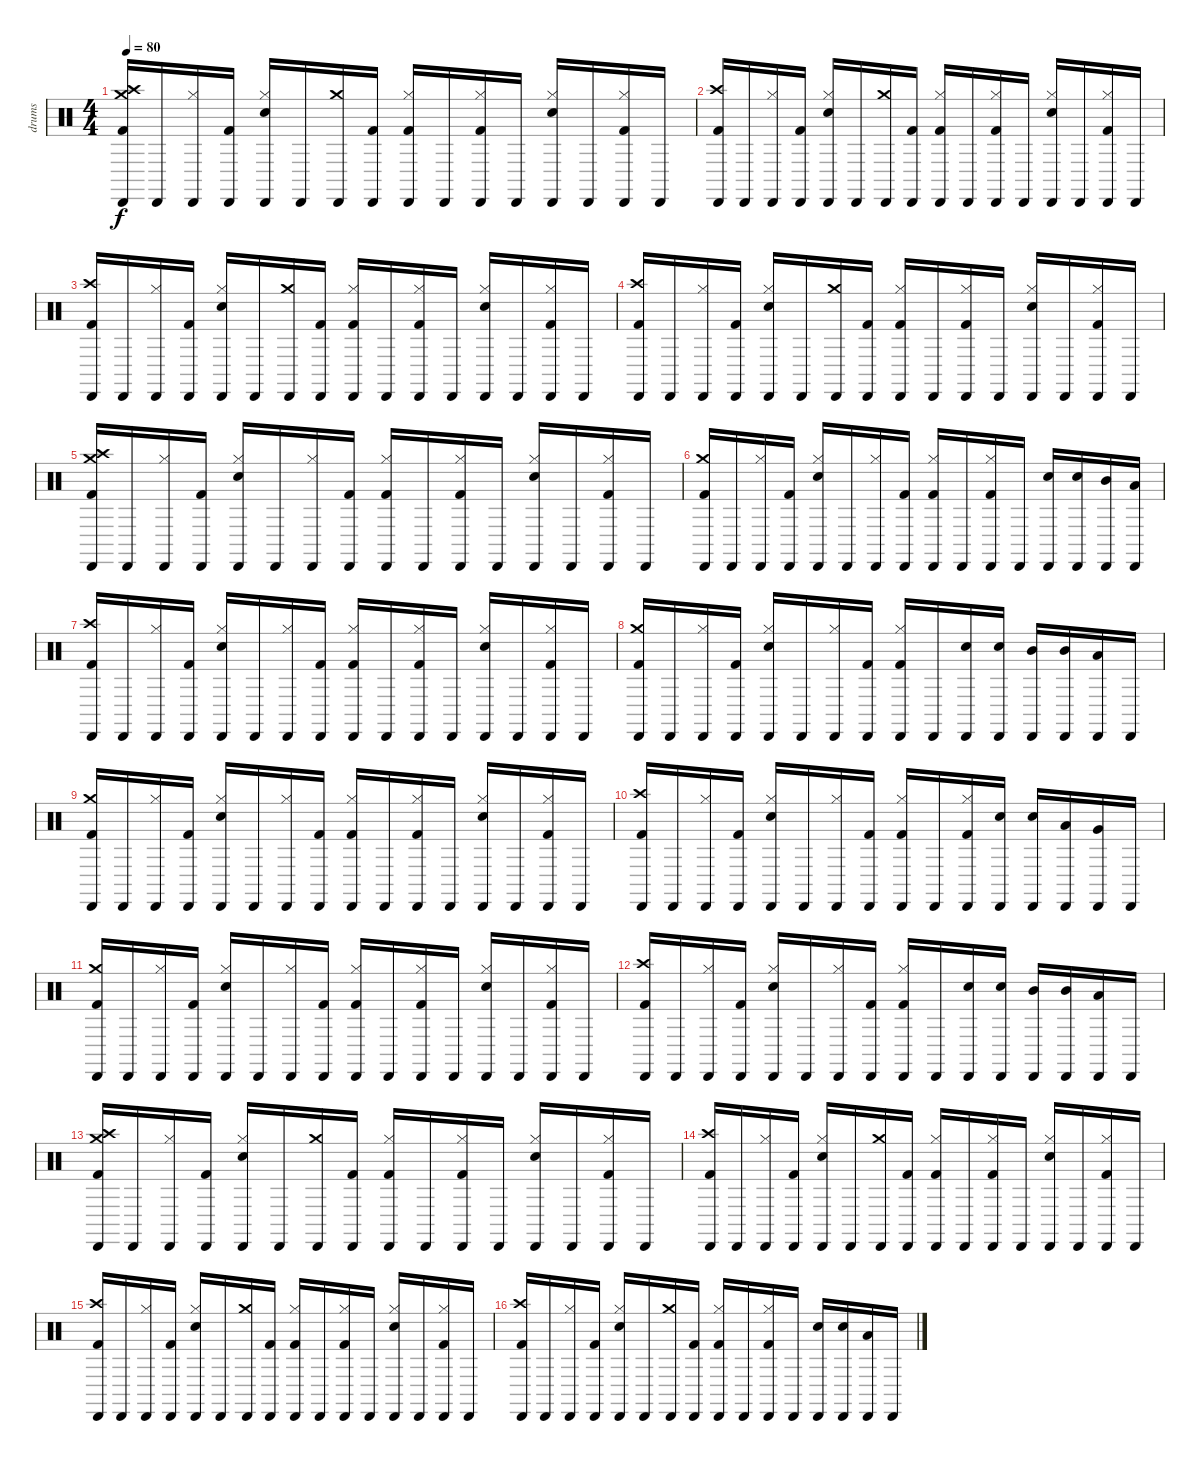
\track ("drums" "drums") {instrument percussion}
\staff {score}
\articulation defaults
\ts (4 4)
\tempo 80
\clef neutral
\ks c
("Cabasa (hit)" "Crash high (hit)" "Kick (hit) 2" "Crash medium (hit)").16{dy f} "Cabasa (hit)".16 ("Cabasa (hit)" "Hi-Hat (closed)").16 ("Cabasa (hit)" "Kick (hit) 2").16 ("Cabasa (hit)" "Hi-Hat (closed)" "Electric Snare (hit)").16 "Cabasa (hit)".16 ("Cabasa (hit)" "Crash medium (hit)").16 ("Cabasa (hit)" "Kick (hit) 2").16 ("Cabasa (hit)" "Hi-Hat (closed)" "Kick (hit) 2").16 "Cabasa (hit)".16 ("Cabasa (hit)" "Hi-Hat (closed)" "Kick (hit) 2").16 "Cabasa (hit)".16 ("Cabasa (hit)" "Hi-Hat (closed)" "Electric Snare (hit)").16 "Cabasa (hit)".16 ("Cabasa (hit)" "Hi-Hat (closed)" "Kick (hit) 2").16 "Cabasa (hit)".16 |
("Cabasa (hit)" "Crash high (hit)" "Kick (hit) 2").16 "Cabasa (hit)".16 ("Cabasa (hit)" "Hi-Hat (closed)").16 ("Cabasa (hit)" "Kick (hit) 2").16 ("Cabasa (hit)" "Hi-Hat (closed)" "Electric Snare (hit)").16 "Cabasa (hit)".16 ("Cabasa (hit)" "Crash medium (hit)").16 ("Cabasa (hit)" "Kick (hit) 2").16 ("Cabasa (hit)" "Hi-Hat (closed)" "Kick (hit) 2").16 "Cabasa (hit)".16 ("Cabasa (hit)" "Hi-Hat (closed)" "Kick (hit) 2").16 "Cabasa (hit)".16 ("Cabasa (hit)" "Hi-Hat (closed)" "Electric Snare (hit)").16 "Cabasa (hit)".16 ("Cabasa (hit)" "Hi-Hat (closed)" "Kick (hit) 2").16 "Cabasa (hit)".16 |
("Cabasa (hit)" "Crash high (hit)" "Kick (hit) 2").16 "Cabasa (hit)".16 ("Cabasa (hit)" "Hi-Hat (closed)").16 ("Cabasa (hit)" "Kick (hit) 2").16 ("Cabasa (hit)" "Hi-Hat (closed)" "Electric Snare (hit)").16 "Cabasa (hit)".16 ("Cabasa (hit)" "Crash medium (hit)").16 ("Cabasa (hit)" "Kick (hit) 2").16 ("Cabasa (hit)" "Hi-Hat (closed)" "Kick (hit) 2").16 "Cabasa (hit)".16 ("Cabasa (hit)" "Hi-Hat (closed)" "Kick (hit) 2").16 "Cabasa (hit)".16 ("Cabasa (hit)" "Hi-Hat (closed)" "Electric Snare (hit)").16 "Cabasa (hit)".16 ("Cabasa (hit)" "Hi-Hat (closed)" "Kick (hit) 2").16 "Cabasa (hit)".16 |
("Cabasa (hit)" "Crash high (hit)" "Kick (hit) 2").16 "Cabasa (hit)".16 ("Cabasa (hit)" "Hi-Hat (closed)").16 ("Cabasa (hit)" "Kick (hit) 2").16 ("Cabasa (hit)" "Hi-Hat (closed)" "Electric Snare (hit)").16 "Cabasa (hit)".16 ("Cabasa (hit)" "Crash medium (hit)").16 ("Cabasa (hit)" "Kick (hit) 2").16 ("Cabasa (hit)" "Hi-Hat (closed)" "Kick (hit) 2").16 "Cabasa (hit)".16 ("Cabasa (hit)" "Hi-Hat (closed)" "Kick (hit) 2").16 "Cabasa (hit)".16 ("Cabasa (hit)" "Hi-Hat (closed)" "Electric Snare (hit)").16 "Cabasa (hit)".16 ("Cabasa (hit)" "Hi-Hat (closed)" "Kick (hit) 2").16 "Cabasa (hit)".16 |
("Cabasa (hit)" "Kick (hit) 2" "Crash medium (hit)" "Crash high (hit)").16 "Cabasa (hit)".16 ("Cabasa (hit)" "Hi-Hat (closed)").16 ("Cabasa (hit)" "Kick (hit) 2").16 ("Cabasa (hit)" "Hi-Hat (closed)" "Electric Snare (hit)").16 "Cabasa (hit)".16 ("Cabasa (hit)" "Hi-Hat (closed)").16 ("Cabasa (hit)" "Kick (hit) 2").16 ("Cabasa (hit)" "Hi-Hat (closed)" "Kick (hit) 2").16 "Cabasa (hit)".16 ("Cabasa (hit)" "Hi-Hat (closed)" "Kick (hit) 2").16 "Cabasa (hit)".16 ("Cabasa (hit)" "Hi-Hat (closed)" "Electric Snare (hit)").16 "Cabasa (hit)".16 ("Cabasa (hit)" "Hi-Hat (closed)" "Kick (hit) 2").16 "Cabasa (hit)".16 |
("Cabasa (hit)" "Crash medium (hit)" "Kick (hit) 2").16 "Cabasa (hit)".16 ("Cabasa (hit)" "Hi-Hat (closed)").16 ("Cabasa (hit)" "Kick (hit) 2").16 ("Cabasa (hit)" "Hi-Hat (closed)" "Electric Snare (hit)").16 "Cabasa (hit)".16 ("Cabasa (hit)" "Hi-Hat (closed)").16 ("Cabasa (hit)" "Kick (hit) 2").16 ("Cabasa (hit)" "Hi-Hat (closed)" "Kick (hit) 2").16 "Cabasa (hit)".16 ("Cabasa (hit)" "Hi-Hat (closed)" "Kick (hit) 2").16 "Cabasa (hit)".16 ("Cabasa (hit)" "Electric Snare (hit)").16 ("Cabasa (hit)" "Electric Snare (hit)").16 ("Cabasa (hit)" "Mid Tom (hit)").16 ("Cabasa (hit)" "Low Tom (hit)").16 |
("Cabasa (hit)" "Crash high (hit)" "Kick (hit) 2").16 "Cabasa (hit)".16 ("Cabasa (hit)" "Hi-Hat (closed)").16 ("Cabasa (hit)" "Kick (hit) 2").16 ("Cabasa (hit)" "Hi-Hat (closed)" "Electric Snare (hit)").16 "Cabasa (hit)".16 ("Cabasa (hit)" "Hi-Hat (closed)").16 ("Cabasa (hit)" "Kick (hit) 2").16 ("Cabasa (hit)" "Hi-Hat (closed)" "Kick (hit) 2").16 "Cabasa (hit)".16 ("Cabasa (hit)" "Hi-Hat (closed)" "Kick (hit) 2").16 "Cabasa (hit)".16 ("Cabasa (hit)" "Hi-Hat (closed)" "Electric Snare (hit)").16 "Cabasa (hit)".16 ("Cabasa (hit)" "Hi-Hat (closed)" "Kick (hit) 2").16 "Cabasa (hit)".16 |
("Cabasa (hit)" "Crash medium (hit)" "Kick (hit) 2").16 "Cabasa (hit)".16 ("Cabasa (hit)" "Hi-Hat (closed)").16 ("Cabasa (hit)" "Kick (hit) 2").16 ("Cabasa (hit)" "Hi-Hat (closed)" "Electric Snare (hit)").16 "Cabasa (hit)".16 ("Cabasa (hit)" "Hi-Hat (closed)").16 ("Cabasa (hit)" "Kick (hit) 2").16 ("Cabasa (hit)" "Hi-Hat (closed)" "Kick (hit) 2").16 "Cabasa (hit)".16 ("Cabasa (hit)" "Electric Snare (hit)").16 ("Cabasa (hit)" "Electric Snare (hit)").16 ("Cabasa (hit)" "Mid Tom (hit)").16 ("Cabasa (hit)" "Mid Tom (hit)").16 ("Cabasa (hit)" "Low Tom (hit)").16 "Cabasa (hit)".16 |
("Cabasa (hit)" "Crash medium (hit)" "Kick (hit) 2").16 "Cabasa (hit)".16 ("Cabasa (hit)" "Hi-Hat (closed)").16 ("Cabasa (hit)" "Kick (hit) 2").16 ("Cabasa (hit)" "Hi-Hat (closed)" "Electric Snare (hit)").16 "Cabasa (hit)".16 ("Cabasa (hit)" "Hi-Hat (closed)").16 ("Cabasa (hit)" "Kick (hit) 2").16 ("Cabasa (hit)" "Hi-Hat (closed)" "Kick (hit) 2").16 "Cabasa (hit)".16 ("Cabasa (hit)" "Hi-Hat (closed)" "Kick (hit) 2").16 "Cabasa (hit)".16 ("Cabasa (hit)" "Hi-Hat (closed)" "Electric Snare (hit)").16 "Cabasa (hit)".16 ("Cabasa (hit)" "Hi-Hat (closed)" "Kick (hit) 2").16 "Cabasa (hit)".16 |
("Cabasa (hit)" "Crash high (hit)" "Kick (hit) 2").16 "Cabasa (hit)".16 ("Cabasa (hit)" "Hi-Hat (closed)").16 ("Cabasa (hit)" "Kick (hit) 2").16 ("Cabasa (hit)" "Hi-Hat (closed)" "Electric Snare (hit)").16 "Cabasa (hit)".16 ("Cabasa (hit)" "Hi-Hat (closed)").16 ("Cabasa (hit)" "Kick (hit) 2").16 ("Cabasa (hit)" "Hi-Hat (closed)" "Kick (hit) 2").16 "Cabasa (hit)".16 ("Cabasa (hit)" "Hi-Hat (closed)" "Kick (hit) 2").16 ("Cabasa (hit)" "Electric Snare (hit)").16 ("Cabasa (hit)" "Electric Snare (hit)").16 ("Cabasa (hit)" "Low Tom (hit)").16 ("Cabasa (hit)" "Very Low Tom (hit)").16 "Cabasa (hit)".16 |
("Cabasa (hit)" "Crash medium (hit)" "Kick (hit) 2").16 "Cabasa (hit)".16 ("Cabasa (hit)" "Hi-Hat (closed)").16 ("Cabasa (hit)" "Kick (hit) 2").16 ("Cabasa (hit)" "Hi-Hat (closed)" "Electric Snare (hit)").16 "Cabasa (hit)".16 ("Cabasa (hit)" "Hi-Hat (closed)").16 ("Cabasa (hit)" "Kick (hit) 2").16 ("Cabasa (hit)" "Hi-Hat (closed)" "Kick (hit) 2").16 "Cabasa (hit)".16 ("Cabasa (hit)" "Hi-Hat (closed)" "Kick (hit) 2").16 "Cabasa (hit)".16 ("Cabasa (hit)" "Hi-Hat (closed)" "Electric Snare (hit)").16 "Cabasa (hit)".16 ("Cabasa (hit)" "Hi-Hat (closed)" "Kick (hit) 2").16 "Cabasa (hit)".16 |
("Cabasa (hit)" "Crash high (hit)" "Kick (hit) 2").16 "Cabasa (hit)".16 ("Cabasa (hit)" "Hi-Hat (closed)").16 ("Cabasa (hit)" "Kick (hit) 2").16 ("Cabasa (hit)" "Hi-Hat (closed)" "Electric Snare (hit)").16 "Cabasa (hit)".16 ("Cabasa (hit)" "Hi-Hat (closed)").16 ("Cabasa (hit)" "Kick (hit) 2").16 ("Cabasa (hit)" "Hi-Hat (closed)" "Kick (hit) 2").16 "Cabasa (hit)".16 ("Cabasa (hit)" "Electric Snare (hit)").16 ("Cabasa (hit)" "Electric Snare (hit)").16 ("Cabasa (hit)" "Mid Tom (hit)").16 ("Cabasa (hit)" "Mid Tom (hit)").16 ("Cabasa (hit)" "Low Tom (hit)").16 "Cabasa (hit)".16 |
("Cabasa (hit)" "Crash high (hit)" "Kick (hit) 2" "Crash medium (hit)").16 "Cabasa (hit)".16 ("Cabasa (hit)" "Hi-Hat (closed)").16 ("Cabasa (hit)" "Kick (hit) 2").16 ("Cabasa (hit)" "Hi-Hat (closed)" "Electric Snare (hit)").16 "Cabasa (hit)".16 ("Cabasa (hit)" "Crash medium (hit)").16 ("Cabasa (hit)" "Kick (hit) 2").16 ("Cabasa (hit)" "Hi-Hat (closed)" "Kick (hit) 2").16 "Cabasa (hit)".16 ("Cabasa (hit)" "Hi-Hat (closed)" "Kick (hit) 2").16 "Cabasa (hit)".16 ("Cabasa (hit)" "Hi-Hat (closed)" "Electric Snare (hit)").16 "Cabasa (hit)".16 ("Cabasa (hit)" "Hi-Hat (closed)" "Kick (hit) 2").16 "Cabasa (hit)".16 |
("Cabasa (hit)" "Crash high (hit)" "Kick (hit) 2").16 "Cabasa (hit)".16 ("Cabasa (hit)" "Hi-Hat (closed)").16 ("Cabasa (hit)" "Kick (hit) 2").16 ("Cabasa (hit)" "Hi-Hat (closed)" "Electric Snare (hit)").16 "Cabasa (hit)".16 ("Cabasa (hit)" "Crash medium (hit)").16 ("Cabasa (hit)" "Kick (hit) 2").16 ("Cabasa (hit)" "Hi-Hat (closed)" "Kick (hit) 2").16 "Cabasa (hit)".16 ("Cabasa (hit)" "Hi-Hat (closed)" "Kick (hit) 2").16 "Cabasa (hit)".16 ("Cabasa (hit)" "Hi-Hat (closed)" "Electric Snare (hit)").16 "Cabasa (hit)".16 ("Cabasa (hit)" "Hi-Hat (closed)" "Kick (hit) 2").16 "Cabasa (hit)".16 |
("Cabasa (hit)" "Crash high (hit)" "Kick (hit) 2").16 "Cabasa (hit)".16 ("Cabasa (hit)" "Hi-Hat (closed)").16 ("Cabasa (hit)" "Kick (hit) 2").16 ("Cabasa (hit)" "Hi-Hat (closed)" "Electric Snare (hit)").16 "Cabasa (hit)".16 ("Cabasa (hit)" "Crash medium (hit)").16 ("Cabasa (hit)" "Kick (hit) 2").16 ("Cabasa (hit)" "Hi-Hat (closed)" "Kick (hit) 2").16 "Cabasa (hit)".16 ("Cabasa (hit)" "Hi-Hat (closed)" "Kick (hit) 2").16 "Cabasa (hit)".16 ("Cabasa (hit)" "Hi-Hat (closed)" "Electric Snare (hit)").16 "Cabasa (hit)".16 ("Cabasa (hit)" "Hi-Hat (closed)" "Kick (hit) 2").16 "Cabasa (hit)".16 |
("Cabasa (hit)" "Crash high (hit)" "Kick (hit) 2").16 "Cabasa (hit)".16 ("Cabasa (hit)" "Hi-Hat (closed)").16 ("Cabasa (hit)" "Kick (hit) 2").16 ("Cabasa (hit)" "Hi-Hat (closed)" "Electric Snare (hit)").16 "Cabasa (hit)".16 ("Cabasa (hit)" "Crash medium (hit)").16 ("Cabasa (hit)" "Kick (hit) 2").16 ("Cabasa (hit)" "Hi-Hat (closed)" "Kick (hit) 2").16 "Cabasa (hit)".16 ("Cabasa (hit)" "Hi-Hat (closed)" "Kick (hit) 2").16 "Cabasa (hit)".16 ("Cabasa (hit)" "Electric Snare (hit)").16 ("Cabasa (hit)" "Electric Snare (hit)").16 ("Cabasa (hit)" "Low Tom (hit)").16 "Cabasa (hit)".16
